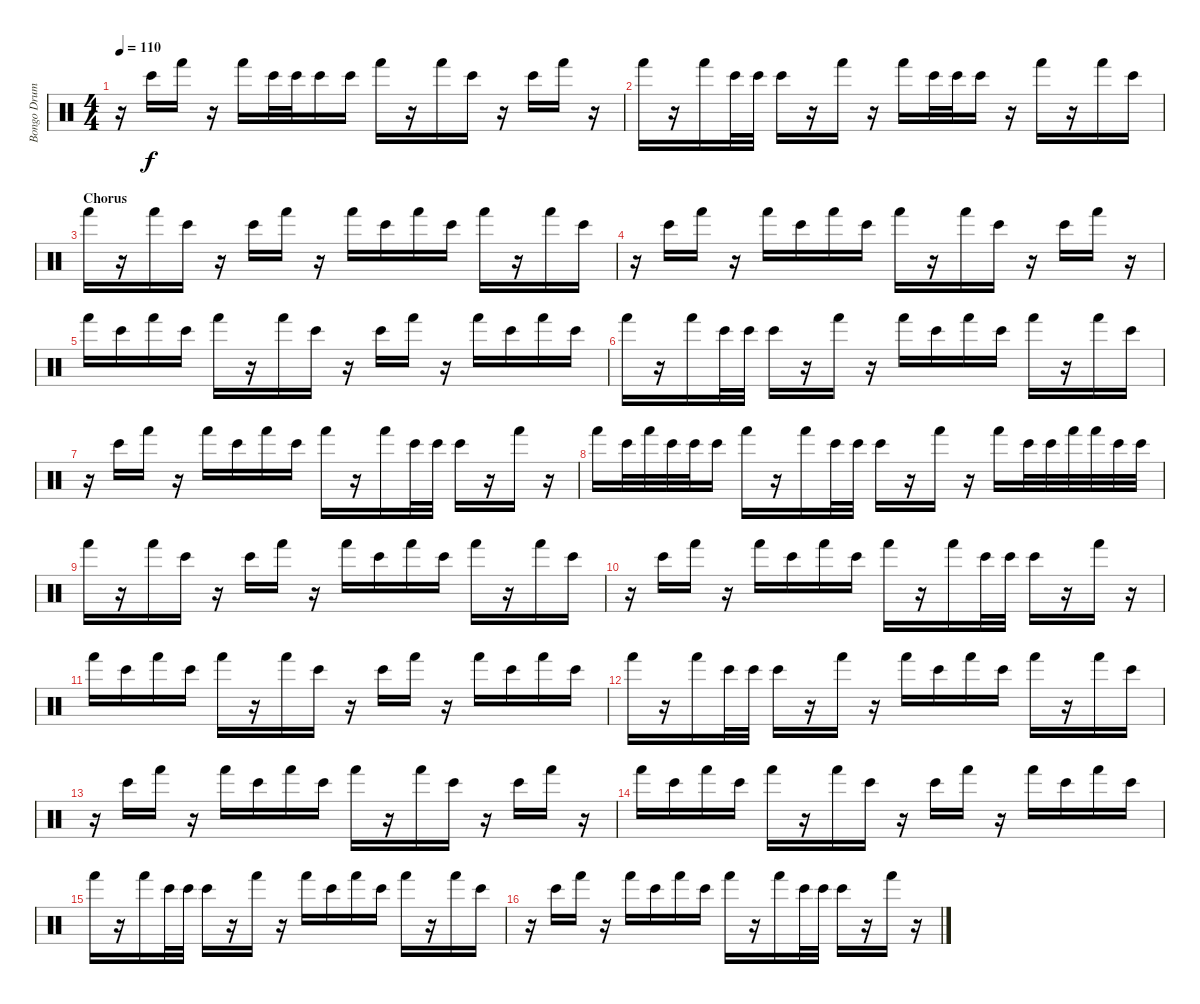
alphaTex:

\track ("Bongo Drums" "Bongo Drum") {instrument percussion}
\staff {score}
\articulation defaults
\ts (4 4)
\tempo 110
\clef neutral
\ks c
r.16{dy f} "Bongo High (hit)".16 "Hand (hit)".16 r.16 "Hand (hit)".16 "Bongo High (hit)".32 "Bongo High (hit)".32 "Bongo High (hit)".16 "Bongo High (hit)".16 "Hand (hit)".16 r.16 "Hand (hit)".16 "Bongo High (hit)".16 r.16 "Bongo High (hit)".16 "Hand (hit)".16 r.16 |
"Hand (hit)".16 r.16 "Hand (hit)".16 "Bongo High (hit)".32 "Bongo High (hit)".32 "Bongo High (hit)".16 r.16 "Hand (hit)".16 r.16 "Hand (hit)".16 "Bongo High (hit)".32 "Bongo High (hit)".32 "Bongo High (hit)".16 r.16 "Hand (hit)".16 r.16 "Hand (hit)".16 "Bongo High (hit)".16 |
\section ("" "Chorus")
"Hand (hit)".16 r.16 "Hand (hit)".16 "Bongo High (hit)".16 r.16 "Bongo High (hit)".16 "Hand (hit)".16 r.16 "Hand (hit)".16 "Bongo High (hit)".16 "Hand (hit)".16 "Bongo High (hit)".16 "Hand (hit)".16 r.16 "Hand (hit)".16 "Bongo High (hit)".16 |
r.16 "Bongo High (hit)".16 "Hand (hit)".16 r.16 "Hand (hit)".16 "Bongo High (hit)".16 "Hand (hit)".16 "Bongo High (hit)".16 "Hand (hit)".16 r.16 "Hand (hit)".16 "Bongo High (hit)".16 r.16 "Bongo High (hit)".16 "Hand (hit)".16 r.16 |
"Hand (hit)".16 "Bongo High (hit)".16 "Hand (hit)".16 "Bongo High (hit)".16 "Hand (hit)".16 r.16 "Hand (hit)".16 "Bongo High (hit)".16 r.16 "Bongo High (hit)".16 "Hand (hit)".16 r.16 "Hand (hit)".16 "Bongo High (hit)".16 "Hand (hit)".16 "Bongo High (hit)".16 |
"Hand (hit)".16 r.16 "Hand (hit)".16 "Bongo High (hit)".32 "Bongo High (hit)".32 "Bongo High (hit)".16 r.16 "Hand (hit)".16 r.16 "Hand (hit)".16 "Bongo High (hit)".16 "Hand (hit)".16 "Bongo High (hit)".16 "Hand (hit)".16 r.16 "Hand (hit)".16 "Bongo High (hit)".16 |
r.16 "Bongo High (hit)".16 "Hand (hit)".16 r.16 "Hand (hit)".16 "Bongo High (hit)".16 "Hand (hit)".16 "Bongo High (hit)".16 "Hand (hit)".16 r.16 "Hand (hit)".16 "Bongo High (hit)".32 "Bongo High (hit)".32 "Bongo High (hit)".16 r.16 "Hand (hit)".16 r.16 |
"Hand (hit)".16 "Bongo High (hit)".32 "Hand (hit)".32 "Bongo High (hit)".32 "Bongo High (hit)".32 "Bongo High (hit)".16 "Hand (hit)".16 r.16 "Hand (hit)".16 "Bongo High (hit)".32 "Bongo High (hit)".32 "Bongo High (hit)".16 r.16 "Hand (hit)".16 r.16 "Hand (hit)".16 "Bongo High (hit)".32 "Bongo High (hit)".32 "Hand (hit)".32 "Hand (hit)".32 "Bongo High (hit)".32 "Bongo High (hit)".32 |
"Hand (hit)".16 r.16 "Hand (hit)".16 "Bongo High (hit)".16 r.16 "Bongo High (hit)".16 "Hand (hit)".16 r.16 "Hand (hit)".16 "Bongo High (hit)".16 "Hand (hit)".16 "Bongo High (hit)".16 "Hand (hit)".16 r.16 "Hand (hit)".16 "Bongo High (hit)".16 |
r.16 "Bongo High (hit)".16 "Hand (hit)".16 r.16 "Hand (hit)".16 "Bongo High (hit)".16 "Hand (hit)".16 "Bongo High (hit)".16 "Hand (hit)".16 r.16 "Hand (hit)".16 "Bongo High (hit)".32 "Bongo High (hit)".32 "Bongo High (hit)".16 r.16 "Hand (hit)".16 r.16 |
"Hand (hit)".16 "Bongo High (hit)".16 "Hand (hit)".16 "Bongo High (hit)".16 "Hand (hit)".16 r.16 "Hand (hit)".16 "Bongo High (hit)".16 r.16 "Bongo High (hit)".16 "Hand (hit)".16 r.16 "Hand (hit)".16 "Bongo High (hit)".16 "Hand (hit)".16 "Bongo High (hit)".16 |
"Hand (hit)".16 r.16 "Hand (hit)".16 "Bongo High (hit)".32 "Bongo High (hit)".32 "Bongo High (hit)".16 r.16 "Hand (hit)".16 r.16 "Hand (hit)".16 "Bongo High (hit)".16 "Hand (hit)".16 "Bongo High (hit)".16 "Hand (hit)".16 r.16 "Hand (hit)".16 "Bongo High (hit)".16 |
r.16 "Bongo High (hit)".16 "Hand (hit)".16 r.16 "Hand (hit)".16 "Bongo High (hit)".16 "Hand (hit)".16 "Bongo High (hit)".16 "Hand (hit)".16 r.16 "Hand (hit)".16 "Bongo High (hit)".16 r.16 "Bongo High (hit)".16 "Hand (hit)".16 r.16 |
"Hand (hit)".16 "Bongo High (hit)".16 "Hand (hit)".16 "Bongo High (hit)".16 "Hand (hit)".16 r.16 "Hand (hit)".16 "Bongo High (hit)".16 r.16 "Bongo High (hit)".16 "Hand (hit)".16 r.16 "Hand (hit)".16 "Bongo High (hit)".16 "Hand (hit)".16 "Bongo High (hit)".16 |
"Hand (hit)".16 r.16 "Hand (hit)".16 "Bongo High (hit)".32 "Bongo High (hit)".32 "Bongo High (hit)".16 r.16 "Hand (hit)".16 r.16 "Hand (hit)".16 "Bongo High (hit)".16 "Hand (hit)".16 "Bongo High (hit)".16 "Hand (hit)".16 r.16 "Hand (hit)".16 "Bongo High (hit)".16 |
r.16 "Bongo High (hit)".16 "Hand (hit)".16 r.16 "Hand (hit)".16 "Bongo High (hit)".16 "Hand (hit)".16 "Bongo High (hit)".16 "Hand (hit)".16 r.16 "Hand (hit)".16 "Bongo High (hit)".32 "Bongo High (hit)".32 "Bongo High (hit)".16 r.16 "Hand (hit)".16 r.16
